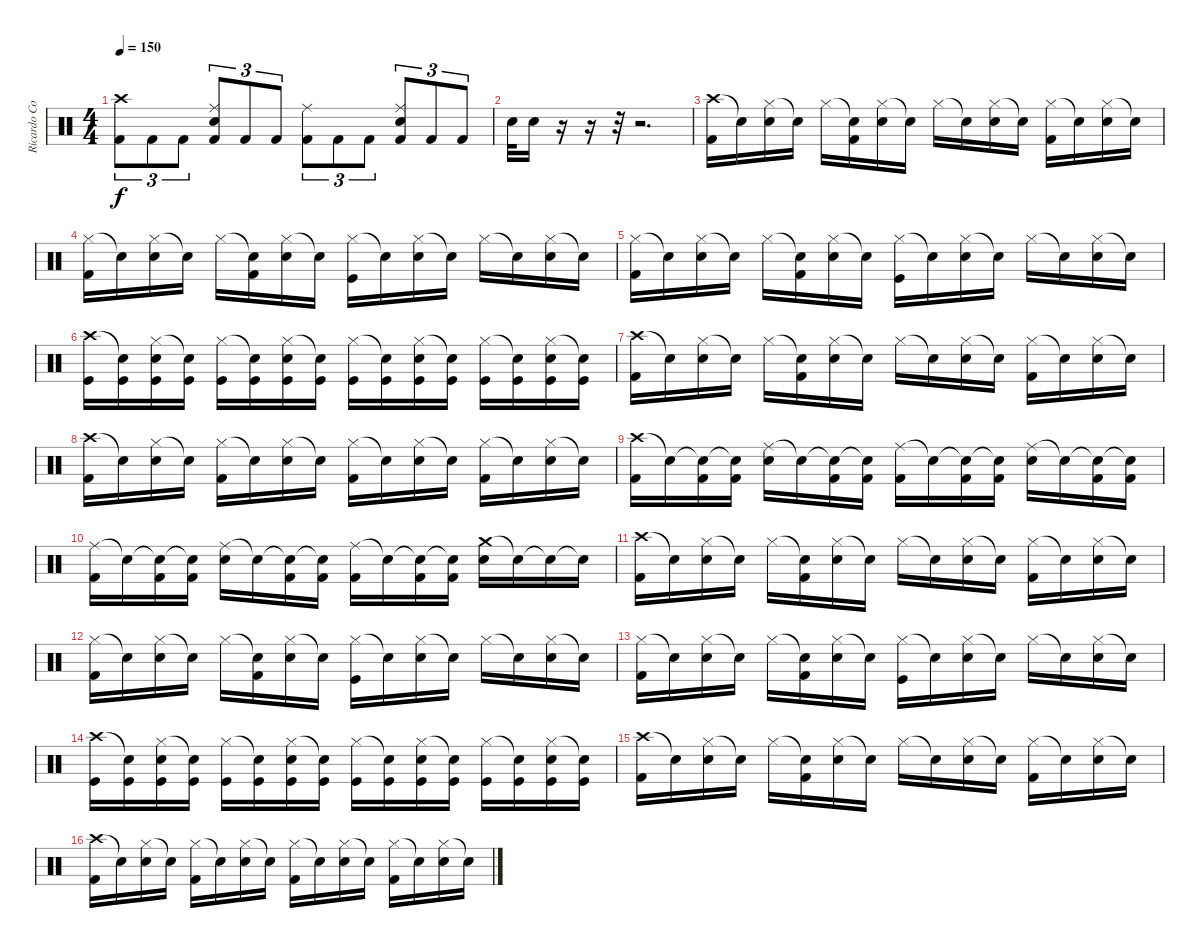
\track ("Ricardo Confessori" "Ricardo Co") {instrument percussion}
\staff {score}
\articulation defaults
\ts (4 4)
\tempo 150
\clef neutral
\ks c
("Crash high (hit)" "Kick (hit) 2").8{tu (3 2) dy f} "Kick (hit) 2".8{tu (3 2)} "Kick (hit) 2".8{tu (3 2)} ("Ride (middle)" "Electric Snare (hit)" "Kick (hit) 2").8{tu (3 2)} "Kick (hit) 2".8{tu (3 2)} "Kick (hit) 2".8{tu (3 2)} ("Ride (middle)" "Kick (hit) 2").8{tu (3 2)} "Kick (hit) 2".8{tu (3 2)} "Kick (hit) 2".8{tu (3 2)} ("Ride (middle)" "Electric Snare (hit)" "Kick (hit) 2").8{tu (3 2)} "Kick (hit) 2".8{tu (3 2)} "Kick (hit) 2".8{tu (3 2)} |
"Electric Snare (hit)".32 "Electric Snare (hit)".16 r.16 r.16 r.32 r.2{d} |
("Crash high (hit)" "Kick (hit) 2").16 "Snare (hit)"{t}.16 ("Hi-Hat (closed)" "Electric Snare (hit)").16 "Snare (hit)"{t}.16 "Hi-Hat (closed)".16 ("Snare (hit)"{t} "Kick (hit) 2").16 ("Hi-Hat (closed)" "Electric Snare (hit)").16 "Snare (hit)"{t}.16 "Hi-Hat (closed)".16 "Snare (hit)"{t}.16 ("Hi-Hat (closed)" "Electric Snare (hit)").16 "Snare (hit)"{t}.16 ("Hi-Hat (closed)" "Kick (hit) 2").16 "Snare (hit)"{t}.16 ("Hi-Hat (closed)" "Electric Snare (hit)").16 "Snare (hit)"{t}.16 |
("Hi-Hat (closed)" "Kick (hit) 2").16 "Snare (hit)"{t}.16 ("Hi-Hat (closed)" "Electric Snare (hit)").16 "Snare (hit)"{t}.16 "Hi-Hat (closed)".16 ("Snare (hit)"{t} "Kick (hit) 2").16 ("Hi-Hat (closed)" "Electric Snare (hit)").16 "Snare (hit)"{t}.16 ("Hi-Hat (closed)" "Kick (hit)").16 "Snare (hit)"{t}.16 ("Hi-Hat (closed)" "Electric Snare (hit)").16 "Snare (hit)"{t}.16 "Hi-Hat (closed)".16 "Snare (hit)"{t}.16 ("Hi-Hat (closed)" "Electric Snare (hit)").16 "Snare (hit)"{t}.16 |
("Hi-Hat (closed)" "Kick (hit) 2").16 "Snare (hit)"{t}.16 ("Hi-Hat (closed)" "Electric Snare (hit)").16 "Snare (hit)"{t}.16 "Hi-Hat (closed)".16 ("Snare (hit)"{t} "Kick (hit) 2").16 ("Hi-Hat (closed)" "Electric Snare (hit)").16 "Snare (hit)"{t}.16 ("Hi-Hat (closed)" "Kick (hit)").16 "Snare (hit)"{t}.16 ("Hi-Hat (closed)" "Electric Snare (hit)").16 "Snare (hit)"{t}.16 "Hi-Hat (closed)".16 "Snare (hit)"{t}.16 ("Hi-Hat (closed)" "Electric Snare (hit)").16 "Snare (hit)"{t}.16 |
("Crash high (hit)" "Kick (hit)").16 ("Snare (hit)"{t} "Kick (hit)").16 ("Hi-Hat (closed)" "Electric Snare (hit)" "Kick (hit)").16 ("Snare (hit)"{t} "Kick (hit)").16 ("Hi-Hat (closed)" "Kick (hit)").16 ("Snare (hit)"{t} "Kick (hit)").16 ("Hi-Hat (closed)" "Electric Snare (hit)" "Kick (hit)").16 ("Snare (hit)"{t} "Kick (hit)").16 ("Hi-Hat (closed)" "Kick (hit)").16 ("Snare (hit)"{t} "Kick (hit)").16 ("Hi-Hat (closed)" "Electric Snare (hit)" "Kick (hit)").16 ("Snare (hit)"{t} "Kick (hit)").16 ("Hi-Hat (closed)" "Kick (hit)").16 ("Snare (hit)"{t} "Kick (hit)").16 ("Hi-Hat (closed)" "Electric Snare (hit)" "Kick (hit)").16 ("Snare (hit)"{t} "Kick (hit)").16 |
("Crash high (hit)" "Kick (hit) 2").16 "Snare (hit)"{t}.16 ("Hi-Hat (closed)" "Electric Snare (hit)").16 "Snare (hit)"{t}.16 "Hi-Hat (closed)".16 ("Snare (hit)"{t} "Kick (hit) 2").16 ("Hi-Hat (closed)" "Electric Snare (hit)").16 "Snare (hit)"{t}.16 "Hi-Hat (closed)".16 "Snare (hit)"{t}.16 ("Hi-Hat (closed)" "Electric Snare (hit)").16 "Snare (hit)"{t}.16 ("Hi-Hat (closed)" "Kick (hit) 2").16 "Snare (hit)"{t}.16 ("Hi-Hat (closed)" "Electric Snare (hit)").16 "Snare (hit)"{t}.16 |
("Crash high (hit)" "Kick (hit) 2").16 "Snare (hit)"{t}.16 ("Hi-Hat (closed)" "Electric Snare (hit)").16 "Snare (hit)"{t}.16 ("Hi-Hat (closed)" "Kick (hit) 2").16 "Snare (hit)"{t}.16 ("Hi-Hat (closed)" "Electric Snare (hit)").16 "Snare (hit)"{t}.16 ("Hi-Hat (closed)" "Kick (hit) 2").16 "Snare (hit)"{t}.16 ("Hi-Hat (closed)" "Electric Snare (hit)").16 "Snare (hit)"{t}.16 ("Hi-Hat (closed)" "Kick (hit) 2").16 "Snare (hit)"{t}.16 ("Hi-Hat (closed)" "Electric Snare (hit)").16 "Snare (hit)"{t}.16 |
("Crash high (hit)" "Kick (hit) 2").16 "Snare (hit)"{t}.16 ("Snare (hit)"{t} "Kick (hit) 2").16 ("Snare (hit)"{t} "Kick (hit) 2").16 ("Ride (middle)" "Electric Snare (hit)").16 "Snare (hit)"{t}.16 ("Snare (hit)"{t} "Kick (hit) 2").16 ("Snare (hit)"{t} "Kick (hit) 2").16 ("Ride (middle)" "Kick (hit) 2").16 "Snare (hit)"{t}.16 ("Snare (hit)"{t} "Kick (hit) 2").16 ("Snare (hit)"{t} "Kick (hit) 2").16 ("Ride (middle)" "Electric Snare (hit)").16 "Snare (hit)"{t}.16 ("Snare (hit)"{t} "Kick (hit) 2").16 ("Snare (hit)"{t} "Kick (hit) 2").16 |
("Ride (middle)" "Kick (hit) 2").16 "Snare (hit)"{t}.16 ("Snare (hit)"{t} "Kick (hit) 2").16 ("Snare (hit)"{t} "Kick (hit) 2").16 ("Ride (middle)" "Electric Snare (hit)").16 "Snare (hit)"{t}.16 ("Snare (hit)"{t} "Kick (hit) 2").16 ("Snare (hit)"{t} "Kick (hit) 2").16 ("Ride (middle)" "Kick (hit) 2").16 "Snare (hit)"{t}.16 ("Snare (hit)"{t} "Kick (hit) 2").16 ("Snare (hit)"{t} "Kick (hit) 2").16 ("Crash medium (hit)" "Electric Snare (hit)").16 "Snare (hit)"{t}.16 "Snare (hit)"{t}.16 "Snare (hit)"{t}.16 |
("Crash high (hit)" "Kick (hit) 2").16 "Snare (hit)"{t}.16 ("Hi-Hat (closed)" "Electric Snare (hit)").16 "Snare (hit)"{t}.16 "Hi-Hat (closed)".16 ("Snare (hit)"{t} "Kick (hit) 2").16 ("Hi-Hat (closed)" "Electric Snare (hit)").16 "Snare (hit)"{t}.16 "Hi-Hat (closed)".16 "Snare (hit)"{t}.16 ("Hi-Hat (closed)" "Electric Snare (hit)").16 "Snare (hit)"{t}.16 ("Hi-Hat (closed)" "Kick (hit) 2").16 "Snare (hit)"{t}.16 ("Hi-Hat (closed)" "Electric Snare (hit)").16 "Snare (hit)"{t}.16 |
("Hi-Hat (closed)" "Kick (hit) 2").16 "Snare (hit)"{t}.16 ("Hi-Hat (closed)" "Electric Snare (hit)").16 "Snare (hit)"{t}.16 "Hi-Hat (closed)".16 ("Snare (hit)"{t} "Kick (hit) 2").16 ("Hi-Hat (closed)" "Electric Snare (hit)").16 "Snare (hit)"{t}.16 ("Hi-Hat (closed)" "Kick (hit)").16 "Snare (hit)"{t}.16 ("Hi-Hat (closed)" "Electric Snare (hit)").16 "Snare (hit)"{t}.16 "Hi-Hat (closed)".16 "Snare (hit)"{t}.16 ("Hi-Hat (closed)" "Electric Snare (hit)").16 "Snare (hit)"{t}.16 |
("Hi-Hat (closed)" "Kick (hit) 2").16 "Snare (hit)"{t}.16 ("Hi-Hat (closed)" "Electric Snare (hit)").16 "Snare (hit)"{t}.16 "Hi-Hat (closed)".16 ("Snare (hit)"{t} "Kick (hit) 2").16 ("Hi-Hat (closed)" "Electric Snare (hit)").16 "Snare (hit)"{t}.16 ("Hi-Hat (closed)" "Kick (hit)").16 "Snare (hit)"{t}.16 ("Hi-Hat (closed)" "Electric Snare (hit)").16 "Snare (hit)"{t}.16 "Hi-Hat (closed)".16 "Snare (hit)"{t}.16 ("Hi-Hat (closed)" "Electric Snare (hit)").16 "Snare (hit)"{t}.16 |
("Crash high (hit)" "Kick (hit)").16 ("Snare (hit)"{t} "Kick (hit)").16 ("Hi-Hat (closed)" "Electric Snare (hit)" "Kick (hit)").16 ("Snare (hit)"{t} "Kick (hit)").16 ("Hi-Hat (closed)" "Kick (hit)").16 ("Snare (hit)"{t} "Kick (hit)").16 ("Hi-Hat (closed)" "Electric Snare (hit)" "Kick (hit)").16 ("Snare (hit)"{t} "Kick (hit)").16 ("Hi-Hat (closed)" "Kick (hit)").16 ("Snare (hit)"{t} "Kick (hit)").16 ("Hi-Hat (closed)" "Electric Snare (hit)" "Kick (hit)").16 ("Snare (hit)"{t} "Kick (hit)").16 ("Hi-Hat (closed)" "Kick (hit)").16 ("Snare (hit)"{t} "Kick (hit)").16 ("Hi-Hat (closed)" "Electric Snare (hit)" "Kick (hit)").16 ("Snare (hit)"{t} "Kick (hit)").16 |
("Crash high (hit)" "Kick (hit) 2").16 "Snare (hit)"{t}.16 ("Hi-Hat (closed)" "Electric Snare (hit)").16 "Snare (hit)"{t}.16 "Hi-Hat (closed)".16 ("Snare (hit)"{t} "Kick (hit) 2").16 ("Hi-Hat (closed)" "Electric Snare (hit)").16 "Snare (hit)"{t}.16 "Hi-Hat (closed)".16 "Snare (hit)"{t}.16 ("Hi-Hat (closed)" "Electric Snare (hit)").16 "Snare (hit)"{t}.16 ("Hi-Hat (closed)" "Kick (hit) 2").16 "Snare (hit)"{t}.16 ("Hi-Hat (closed)" "Electric Snare (hit)").16 "Snare (hit)"{t}.16 |
("Crash high (hit)" "Kick (hit) 2").16 "Snare (hit)"{t}.16 ("Hi-Hat (closed)" "Electric Snare (hit)").16 "Snare (hit)"{t}.16 ("Hi-Hat (closed)" "Kick (hit) 2").16 "Snare (hit)"{t}.16 ("Hi-Hat (closed)" "Electric Snare (hit)").16 "Snare (hit)"{t}.16 ("Hi-Hat (closed)" "Kick (hit) 2").16 "Snare (hit)"{t}.16 ("Hi-Hat (closed)" "Electric Snare (hit)").16 "Snare (hit)"{t}.16 ("Hi-Hat (closed)" "Kick (hit) 2").16 "Snare (hit)"{t}.16 ("Hi-Hat (closed)" "Electric Snare (hit)").16 "Snare (hit)"{t}.16
